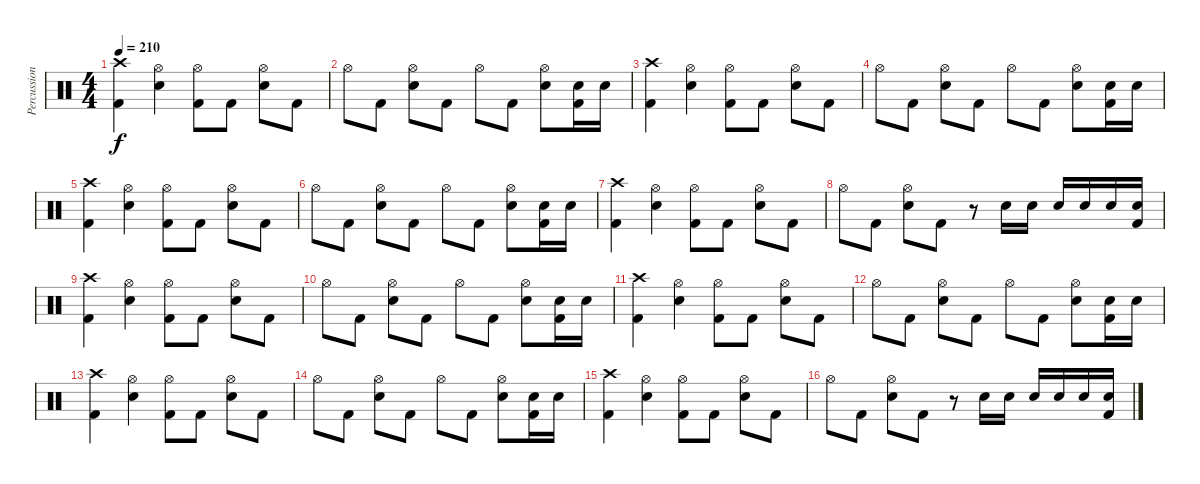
\track ("Percussions" "Percussion") {instrument percussion}
\staff {score}
\articulation defaults
\ts (4 4)
\tempo 210
\clef neutral
\ks c
("Kick (hit) 2" "Crash high (hit)").4{dy f} ("Snare (hit) 2" "Hi-Hat (open)").4 ("Kick (hit) 2" "Hi-Hat (open)").8 "Kick (hit) 2".8 ("Snare (hit) 2" "Hi-Hat (open)").8 "Kick (hit) 2".8 |
"Hi-Hat (open)".8 "Kick (hit) 2".8 ("Snare (hit) 2" "Hi-Hat (open)").8 "Kick (hit) 2".8 "Hi-Hat (open)".8 "Kick (hit) 2".8 ("Snare (hit) 2" "Hi-Hat (open)").8 ("Kick (hit) 2" "Snare (hit) 2").16 "Snare (hit) 2".16 |
("Kick (hit) 2" "Crash high (hit)").4 ("Snare (hit) 2" "Hi-Hat (open)").4 ("Kick (hit) 2" "Hi-Hat (open)").8 "Kick (hit) 2".8 ("Snare (hit) 2" "Hi-Hat (open)").8 "Kick (hit) 2".8 |
"Hi-Hat (open)".8 "Kick (hit) 2".8 ("Snare (hit) 2" "Hi-Hat (open)").8 "Kick (hit) 2".8 "Hi-Hat (open)".8 "Kick (hit) 2".8 ("Snare (hit) 2" "Hi-Hat (open)").8 ("Kick (hit) 2" "Snare (hit) 2").16 "Snare (hit) 2".16 |
("Kick (hit) 2" "Crash high (hit)").4 ("Snare (hit) 2" "Hi-Hat (open)").4 ("Kick (hit) 2" "Hi-Hat (open)").8 "Kick (hit) 2".8 ("Snare (hit) 2" "Hi-Hat (open)").8 "Kick (hit) 2".8 |
"Hi-Hat (open)".8 "Kick (hit) 2".8 ("Snare (hit) 2" "Hi-Hat (open)").8 "Kick (hit) 2".8 "Hi-Hat (open)".8 "Kick (hit) 2".8 ("Snare (hit) 2" "Hi-Hat (open)").8 ("Kick (hit) 2" "Snare (hit) 2").16 "Snare (hit) 2".16 |
("Kick (hit) 2" "Crash high (hit)").4 ("Snare (hit) 2" "Hi-Hat (open)").4 ("Kick (hit) 2" "Hi-Hat (open)").8 "Kick (hit) 2".8 ("Snare (hit) 2" "Hi-Hat (open)").8 "Kick (hit) 2".8 |
"Hi-Hat (open)".8 "Kick (hit) 2".8 ("Snare (hit) 2" "Hi-Hat (open)").8 "Kick (hit) 2".8 r.8 "Snare (hit) 2".16 "Snare (hit) 2".16 "Snare (hit) 2".16 "Snare (hit) 2".16 "Snare (hit) 2".16 ("Kick (hit) 2" "Snare (hit) 2").16 |
("Kick (hit) 2" "Crash high (hit)").4 ("Snare (hit) 2" "Hi-Hat (open)").4 ("Kick (hit) 2" "Hi-Hat (open)").8 "Kick (hit) 2".8 ("Snare (hit) 2" "Hi-Hat (open)").8 "Kick (hit) 2".8 |
"Hi-Hat (open)".8 "Kick (hit) 2".8 ("Snare (hit) 2" "Hi-Hat (open)").8 "Kick (hit) 2".8 "Hi-Hat (open)".8 "Kick (hit) 2".8 ("Snare (hit) 2" "Hi-Hat (open)").8 ("Kick (hit) 2" "Snare (hit) 2").16 "Snare (hit) 2".16 |
("Kick (hit) 2" "Crash high (hit)").4 ("Snare (hit) 2" "Hi-Hat (open)").4 ("Kick (hit) 2" "Hi-Hat (open)").8 "Kick (hit) 2".8 ("Snare (hit) 2" "Hi-Hat (open)").8 "Kick (hit) 2".8 |
"Hi-Hat (open)".8 "Kick (hit) 2".8 ("Snare (hit) 2" "Hi-Hat (open)").8 "Kick (hit) 2".8 "Hi-Hat (open)".8 "Kick (hit) 2".8 ("Snare (hit) 2" "Hi-Hat (open)").8 ("Kick (hit) 2" "Snare (hit) 2").16 "Snare (hit) 2".16 |
("Kick (hit) 2" "Crash high (hit)").4 ("Snare (hit) 2" "Hi-Hat (open)").4 ("Kick (hit) 2" "Hi-Hat (open)").8 "Kick (hit) 2".8 ("Snare (hit) 2" "Hi-Hat (open)").8 "Kick (hit) 2".8 |
"Hi-Hat (open)".8 "Kick (hit) 2".8 ("Snare (hit) 2" "Hi-Hat (open)").8 "Kick (hit) 2".8 "Hi-Hat (open)".8 "Kick (hit) 2".8 ("Snare (hit) 2" "Hi-Hat (open)").8 ("Kick (hit) 2" "Snare (hit) 2").16 "Snare (hit) 2".16 |
("Kick (hit) 2" "Crash high (hit)").4 ("Snare (hit) 2" "Hi-Hat (open)").4 ("Kick (hit) 2" "Hi-Hat (open)").8 "Kick (hit) 2".8 ("Snare (hit) 2" "Hi-Hat (open)").8 "Kick (hit) 2".8 |
"Hi-Hat (open)".8 "Kick (hit) 2".8 ("Snare (hit) 2" "Hi-Hat (open)").8 "Kick (hit) 2".8 r.8 "Snare (hit) 2".16 "Snare (hit) 2".16 "Snare (hit) 2".16 "Snare (hit) 2".16 "Snare (hit) 2".16 ("Kick (hit) 2" "Snare (hit) 2").16
